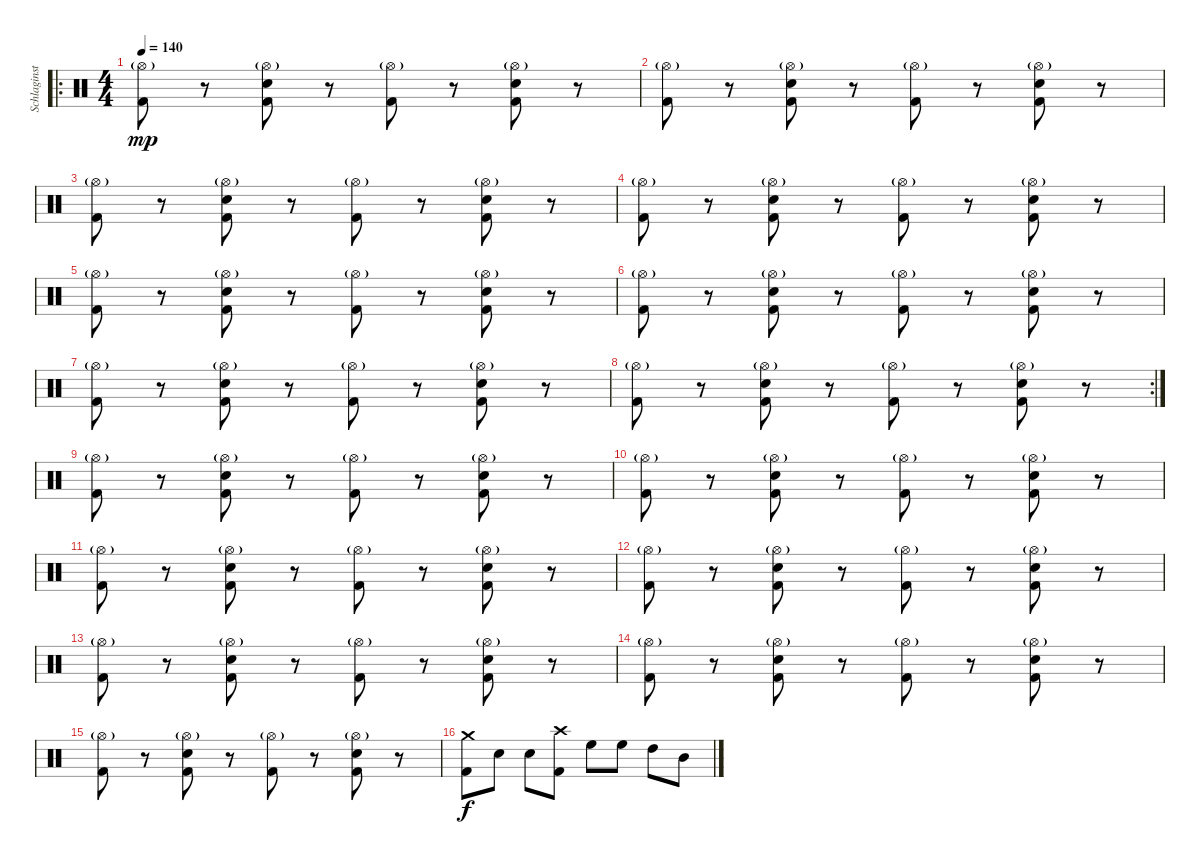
\track ("Schlaginstrumente - Auswahl" "Schlaginst") {instrument percussion}
\staff {score}
\articulation defaults
\ro
\ts (4 4)
\tempo 140
\clef neutral
\ks c
("Hi-Hat (open)"{g} "Kick (hit) 2").8{dy mp} r.8 ("Hi-Hat (open)"{g} "Electric Snare (hit)" "Kick (hit) 2").8 r.8 ("Hi-Hat (open)"{g} "Kick (hit) 2").8 r.8 ("Hi-Hat (open)"{g} "Electric Snare (hit)" "Kick (hit) 2").8 r.8 |
("Hi-Hat (open)"{g} "Kick (hit) 2").8 r.8 ("Hi-Hat (open)"{g} "Electric Snare (hit)" "Kick (hit) 2").8 r.8 ("Hi-Hat (open)"{g} "Kick (hit) 2").8 r.8 ("Hi-Hat (open)"{g} "Electric Snare (hit)" "Kick (hit) 2").8 r.8 |
("Hi-Hat (open)"{g} "Kick (hit) 2").8 r.8 ("Hi-Hat (open)"{g} "Electric Snare (hit)" "Kick (hit) 2").8 r.8 ("Hi-Hat (open)"{g} "Kick (hit) 2").8 r.8 ("Hi-Hat (open)"{g} "Electric Snare (hit)" "Kick (hit) 2").8 r.8 |
("Hi-Hat (open)"{g} "Kick (hit) 2").8 r.8 ("Hi-Hat (open)"{g} "Electric Snare (hit)" "Kick (hit) 2").8 r.8 ("Hi-Hat (open)"{g} "Kick (hit) 2").8 r.8 ("Hi-Hat (open)"{g} "Electric Snare (hit)" "Kick (hit) 2").8 r.8 |
("Hi-Hat (open)"{g} "Kick (hit) 2").8 r.8 ("Hi-Hat (open)"{g} "Electric Snare (hit)" "Kick (hit) 2").8 r.8 ("Hi-Hat (open)"{g} "Kick (hit) 2").8 r.8 ("Hi-Hat (open)"{g} "Electric Snare (hit)" "Kick (hit) 2").8 r.8 |
("Hi-Hat (open)"{g} "Kick (hit) 2").8 r.8 ("Hi-Hat (open)"{g} "Electric Snare (hit)" "Kick (hit) 2").8 r.8 ("Hi-Hat (open)"{g} "Kick (hit) 2").8 r.8 ("Hi-Hat (open)"{g} "Electric Snare (hit)" "Kick (hit) 2").8 r.8 |
("Hi-Hat (open)"{g} "Kick (hit) 2").8 r.8 ("Hi-Hat (open)"{g} "Electric Snare (hit)" "Kick (hit) 2").8 r.8 ("Hi-Hat (open)"{g} "Kick (hit) 2").8 r.8 ("Hi-Hat (open)"{g} "Electric Snare (hit)" "Kick (hit) 2").8 r.8 |
\rc 2
("Hi-Hat (open)"{g} "Kick (hit) 2").8 r.8 ("Hi-Hat (open)"{g} "Electric Snare (hit)" "Kick (hit) 2").8 r.8 ("Hi-Hat (open)"{g} "Kick (hit) 2").8 r.8 ("Hi-Hat (open)"{g} "Electric Snare (hit)" "Kick (hit) 2").8 r.8 |
("Hi-Hat (open)"{g} "Kick (hit) 2").8 r.8 ("Hi-Hat (open)"{g} "Electric Snare (hit)" "Kick (hit) 2").8 r.8 ("Hi-Hat (open)"{g} "Kick (hit) 2").8 r.8 ("Hi-Hat (open)"{g} "Electric Snare (hit)" "Kick (hit) 2").8 r.8 |
("Hi-Hat (open)"{g} "Kick (hit) 2").8 r.8 ("Hi-Hat (open)"{g} "Electric Snare (hit)" "Kick (hit) 2").8 r.8 ("Hi-Hat (open)"{g} "Kick (hit) 2").8 r.8 ("Hi-Hat (open)"{g} "Electric Snare (hit)" "Kick (hit) 2").8 r.8 |
("Hi-Hat (open)"{g} "Kick (hit) 2").8 r.8 ("Hi-Hat (open)"{g} "Electric Snare (hit)" "Kick (hit) 2").8 r.8 ("Hi-Hat (open)"{g} "Kick (hit) 2").8 r.8 ("Hi-Hat (open)"{g} "Electric Snare (hit)" "Kick (hit) 2").8 r.8 |
("Hi-Hat (open)"{g} "Kick (hit) 2").8 r.8 ("Hi-Hat (open)"{g} "Electric Snare (hit)" "Kick (hit) 2").8 r.8 ("Hi-Hat (open)"{g} "Kick (hit) 2").8 r.8 ("Hi-Hat (open)"{g} "Electric Snare (hit)" "Kick (hit) 2").8 r.8 |
("Hi-Hat (open)"{g} "Kick (hit) 2").8 r.8 ("Hi-Hat (open)"{g} "Electric Snare (hit)" "Kick (hit) 2").8 r.8 ("Hi-Hat (open)"{g} "Kick (hit) 2").8 r.8 ("Hi-Hat (open)"{g} "Electric Snare (hit)" "Kick (hit) 2").8 r.8 |
("Hi-Hat (open)"{g} "Kick (hit) 2").8 r.8 ("Hi-Hat (open)"{g} "Electric Snare (hit)" "Kick (hit) 2").8 r.8 ("Hi-Hat (open)"{g} "Kick (hit) 2").8 r.8 ("Hi-Hat (open)"{g} "Electric Snare (hit)" "Kick (hit) 2").8 r.8 |
("Hi-Hat (open)"{g} "Kick (hit) 2").8 r.8 ("Hi-Hat (open)"{g} "Electric Snare (hit)" "Kick (hit) 2").8 r.8 ("Hi-Hat (open)"{g} "Kick (hit) 2").8 r.8 ("Hi-Hat (open)"{g} "Electric Snare (hit)" "Kick (hit) 2").8 r.8 |
("Crash medium (hit)" "Kick (hit) 2").8{dy f} "Electric Snare (hit)".8 "Electric Snare (hit)".8 ("Crash high (hit)" "Kick (hit) 2").8 "High Floor Tom (hit)".8 "High Floor Tom (hit)".8 "High Tom (hit)".8 "Mid Tom (hit)".8
